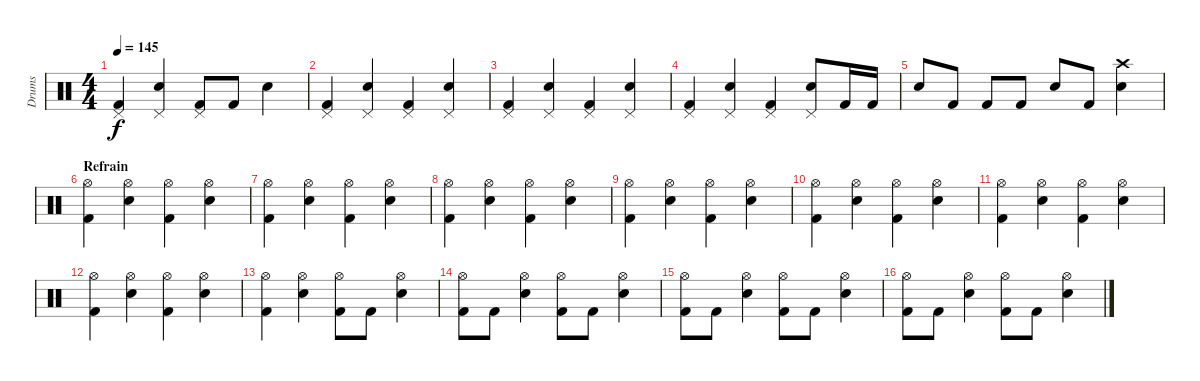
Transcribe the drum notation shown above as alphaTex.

\track ("Drums" "Drums") {instrument percussion}
\staff {score}
\articulation defaults
\ts (4 4)
\tempo 145
\clef neutral
\ks c
("Kick (hit) 2" "Pedal Hi-Hat (hit)").4{dy f} ("Electric Snare (hit)" "Pedal Hi-Hat (hit)").4 ("Kick (hit) 2" "Pedal Hi-Hat (hit)").8 "Kick (hit) 2".8 "Electric Snare (hit)".4 |
("Kick (hit) 2" "Pedal Hi-Hat (hit)").4 ("Electric Snare (hit)" "Pedal Hi-Hat (hit)").4 ("Kick (hit) 2" "Pedal Hi-Hat (hit)").4 ("Electric Snare (hit)" "Pedal Hi-Hat (hit)").4 |
("Kick (hit) 2" "Pedal Hi-Hat (hit)").4 ("Electric Snare (hit)" "Pedal Hi-Hat (hit)").4 ("Kick (hit) 2" "Pedal Hi-Hat (hit)").4 ("Electric Snare (hit)" "Pedal Hi-Hat (hit)").4 |
("Kick (hit) 2" "Pedal Hi-Hat (hit)").4 ("Electric Snare (hit)" "Pedal Hi-Hat (hit)").4 ("Kick (hit) 2" "Pedal Hi-Hat (hit)").4 ("Electric Snare (hit)" "Pedal Hi-Hat (hit)").8 "Kick (hit) 2".16 "Kick (hit) 2".16 |
"Electric Snare (hit)".8 "Kick (hit) 2".8 "Kick (hit) 2".8 "Kick (hit) 2".8 "Electric Snare (hit)".8 "Kick (hit) 2".8 ("Electric Snare (hit)" "Crash high (hit)").4 |
\section ("" "Refrain")
("Kick (hit) 2" "Hi-Hat (open)").4 ("Electric Snare (hit)" "Hi-Hat (open)").4 ("Kick (hit) 2" "Hi-Hat (open)").4 ("Electric Snare (hit)" "Hi-Hat (open)").4 |
("Kick (hit) 2" "Hi-Hat (open)").4 ("Electric Snare (hit)" "Hi-Hat (open)").4 ("Kick (hit) 2" "Hi-Hat (open)").4 ("Electric Snare (hit)" "Hi-Hat (open)").4 |
("Kick (hit) 2" "Hi-Hat (open)").4 ("Electric Snare (hit)" "Hi-Hat (open)").4 ("Kick (hit) 2" "Hi-Hat (open)").4 ("Electric Snare (hit)" "Hi-Hat (open)").4 |
("Kick (hit) 2" "Hi-Hat (open)").4 ("Electric Snare (hit)" "Hi-Hat (open)").4 ("Kick (hit) 2" "Hi-Hat (open)").4 ("Electric Snare (hit)" "Hi-Hat (open)").4 |
("Kick (hit) 2" "Hi-Hat (open)").4 ("Electric Snare (hit)" "Hi-Hat (open)").4 ("Kick (hit) 2" "Hi-Hat (open)").4 ("Electric Snare (hit)" "Hi-Hat (open)").4 |
("Kick (hit) 2" "Hi-Hat (open)").4 ("Electric Snare (hit)" "Hi-Hat (open)").4 ("Kick (hit) 2" "Hi-Hat (open)").4 ("Electric Snare (hit)" "Hi-Hat (open)").4 |
("Kick (hit) 2" "Hi-Hat (open)").4 ("Electric Snare (hit)" "Hi-Hat (open)").4 ("Kick (hit) 2" "Hi-Hat (open)").4 ("Electric Snare (hit)" "Hi-Hat (open)").4 |
("Kick (hit) 2" "Hi-Hat (open)").4 ("Electric Snare (hit)" "Hi-Hat (open)").4 ("Kick (hit) 2" "Hi-Hat (open)").8 "Kick (hit) 2".8 ("Electric Snare (hit)" "Hi-Hat (open)").4 |
("Kick (hit) 2" "Hi-Hat (open)").8 "Kick (hit) 2".8 ("Electric Snare (hit)" "Hi-Hat (open)").4 ("Kick (hit) 2" "Hi-Hat (open)").8 "Kick (hit) 2".8 ("Electric Snare (hit)" "Hi-Hat (open)").4 |
("Kick (hit) 2" "Hi-Hat (open)").8 "Kick (hit) 2".8 ("Electric Snare (hit)" "Hi-Hat (open)").4 ("Kick (hit) 2" "Hi-Hat (open)").8 "Kick (hit) 2".8 ("Electric Snare (hit)" "Hi-Hat (open)").4 |
("Kick (hit) 2" "Hi-Hat (open)").8 "Kick (hit) 2".8 ("Electric Snare (hit)" "Hi-Hat (open)").4 ("Kick (hit) 2" "Hi-Hat (open)").8 "Kick (hit) 2".8 ("Electric Snare (hit)" "Hi-Hat (open)").4
